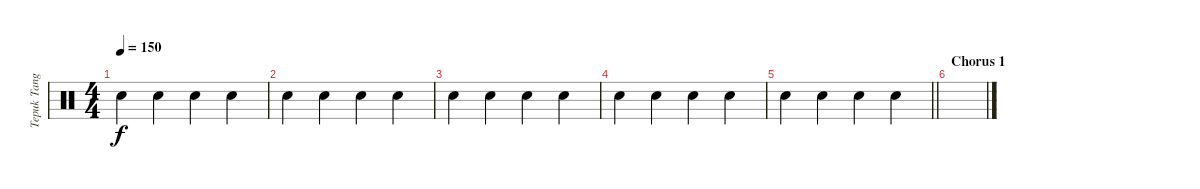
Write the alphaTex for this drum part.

\track ("Tepuk Tangan" "Tepuk Tang") {instrument percussion}
\staff {score}
\articulation defaults
\ts (4 4)
\tempo 150
\clef neutral
\ks c "Hand Clap (hit)".4{dy f} "Hand Clap (hit)".4 "Hand Clap (hit)".4 "Hand Clap (hit)".4
|
"Hand Clap (hit)".4 "Hand Clap (hit)".4 "Hand Clap (hit)".4 "Hand Clap (hit)".4 |
"Hand Clap (hit)".4 "Hand Clap (hit)".4 "Hand Clap (hit)".4 "Hand Clap (hit)".4 |
"Hand Clap (hit)".4 "Hand Clap (hit)".4 "Hand Clap (hit)".4 "Hand Clap (hit)".4 |
\barLineRight lightlight "Hand Clap (hit)".4 "Hand Clap (hit)".4 "Hand Clap (hit)".4 "Hand Clap (hit)".4
|
\section ("" "Chorus 1")
